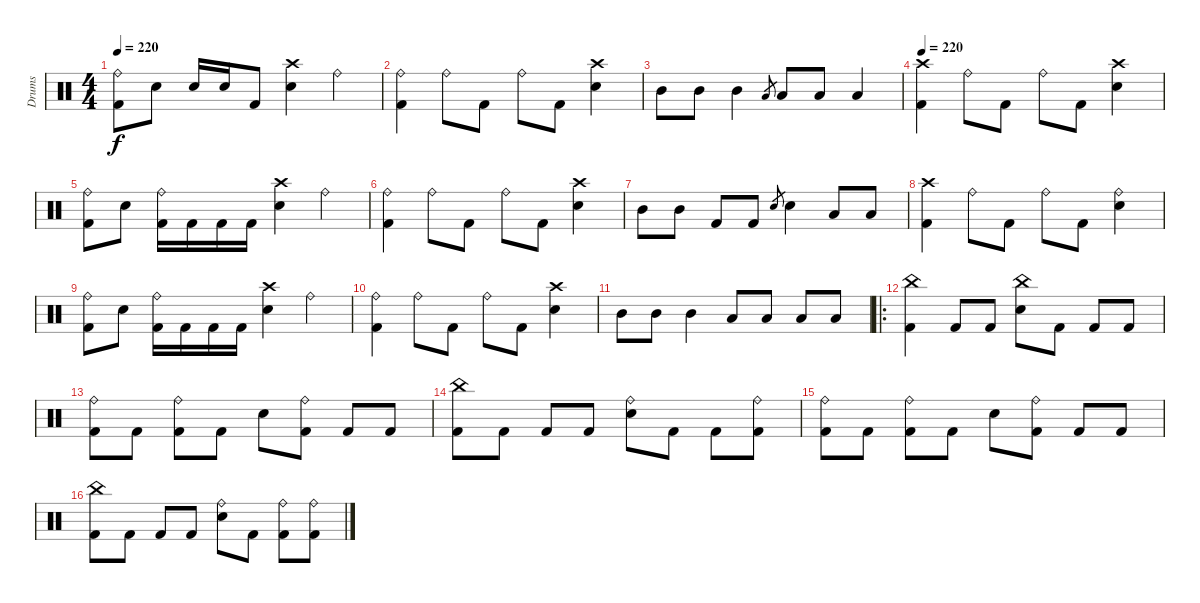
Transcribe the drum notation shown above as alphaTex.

\track ("Drums" "Drums") {instrument percussion}
\staff {score}
\articulation defaults
\ts (4 4)
\tempo 220
\clef neutral
\ks c
("Ride (bell)" "Kick (hit) 2").8{dy f} "Electric Snare (hit)".8 "Electric Snare (hit)".16 "Electric Snare (hit)".16 "Kick (hit) 2".8 ("Crash high (hit)" "Electric Snare (hit)").4 "Ride (bell)".4 |
("Ride (bell)" "Kick (hit) 2").4 "Ride (bell)".8 "Kick (hit) 2".8 "Ride (bell)".8 "Kick (hit) 2".8 ("Crash high (hit)" "Electric Snare (hit)").4 |
"Mid Tom (hit)".8 "Mid Tom (hit)".8 "Mid Tom (hit)".4 "Low Tom (hit)".8{gr} "Low Tom (hit)".8 "Low Tom (hit)".8 "Low Tom (hit)".4 |
\tempo 220
("Crash high (hit)" "Kick (hit) 2").4 "Ride (bell)".8 "Kick (hit) 2".8 "Ride (bell)".8 "Kick (hit) 2".8 ("Crash high (hit)" "Electric Snare (hit)").4 |
("Ride (bell)" "Kick (hit) 2").8 "Electric Snare (hit)".8 ("Ride (bell)" "Kick (hit) 2").16 "Kick (hit) 2".16 "Kick (hit) 2".16 "Kick (hit) 2".16 ("Crash high (hit)" "Electric Snare (hit)").4 "Ride (bell)".4 |
("Ride (bell)" "Kick (hit) 2").4 "Ride (bell)".8 "Kick (hit) 2".8 "Ride (bell)".8 "Kick (hit) 2".8 ("Crash high (hit)" "Electric Snare (hit)").4 |
"Mid Tom (hit)".8 "Mid Tom (hit)".8 "Kick (hit) 2".8 "Kick (hit) 2".8 "Electric Snare (hit)".8{gr} "Electric Snare (hit)".4 "Low Tom (hit)".8 "Low Tom (hit)".8 |
("Crash high (hit)" "Kick (hit) 2").4 "Ride (bell)".8 "Kick (hit) 2".8 "Ride (bell)".8 "Kick (hit) 2".8 ("Ride (bell)" "Electric Snare (hit)").4 |
("Ride (bell)" "Kick (hit) 2").8 "Electric Snare (hit)".8 ("Ride (bell)" "Kick (hit) 2").16 "Kick (hit) 2".16 "Kick (hit) 2".16 "Kick (hit) 2".16 ("Crash high (hit)" "Electric Snare (hit)").4 "Ride (bell)".4 |
("Ride (bell)" "Kick (hit) 2").4 "Ride (bell)".8 "Kick (hit) 2".8 "Ride (bell)".8 "Kick (hit) 2".8 ("Crash high (hit)" "Electric Snare (hit)").4 |
"Mid Tom (hit)".8 "Mid Tom (hit)".8 "Mid Tom (hit)".4 "Low Tom (hit)".8 "Low Tom (hit)".8 "Low Tom (hit)".8 "Low Tom (hit)".8 |
\ro
("China (hit)" "Kick (hit) 2").4 "Kick (hit) 2".8 "Kick (hit) 2".8 ("China (hit)" "Electric Snare (hit)").8 "Kick (hit) 2".8 "Kick (hit) 2".8 "Kick (hit) 2".8 |
("Ride (bell)" "Kick (hit) 2").8 "Kick (hit) 2".8 ("Ride (bell)" "Kick (hit) 2").8 "Kick (hit) 2".8 "Electric Snare (hit)".8 ("Ride (bell)" "Kick (hit) 2").8 "Kick (hit) 2".8 "Kick (hit) 2".8 |
("China (hit)" "Kick (hit) 2").8 "Kick (hit) 2".8 "Kick (hit) 2".8 "Kick (hit) 2".8 ("Ride (bell)" "Electric Snare (hit)").8 "Kick (hit) 2".8 "Kick (hit) 2".8 ("Ride (bell)" "Kick (hit) 2").8 |
("Ride (bell)" "Kick (hit) 2").8 "Kick (hit) 2".8 ("Ride (bell)" "Kick (hit) 2").8 "Kick (hit) 2".8 "Electric Snare (hit)".8 ("Ride (bell)" "Kick (hit) 2").8 "Kick (hit) 2".8 "Kick (hit) 2".8 |
("China (hit)" "Kick (hit) 2").8 "Kick (hit) 2".8 "Kick (hit) 2".8 "Kick (hit) 2".8 ("Ride (bell)" "Electric Snare (hit)").8 "Kick (hit) 2".8 ("Ride (bell)" "Kick (hit) 2").8 ("Ride (bell)" "Kick (hit) 2").8
